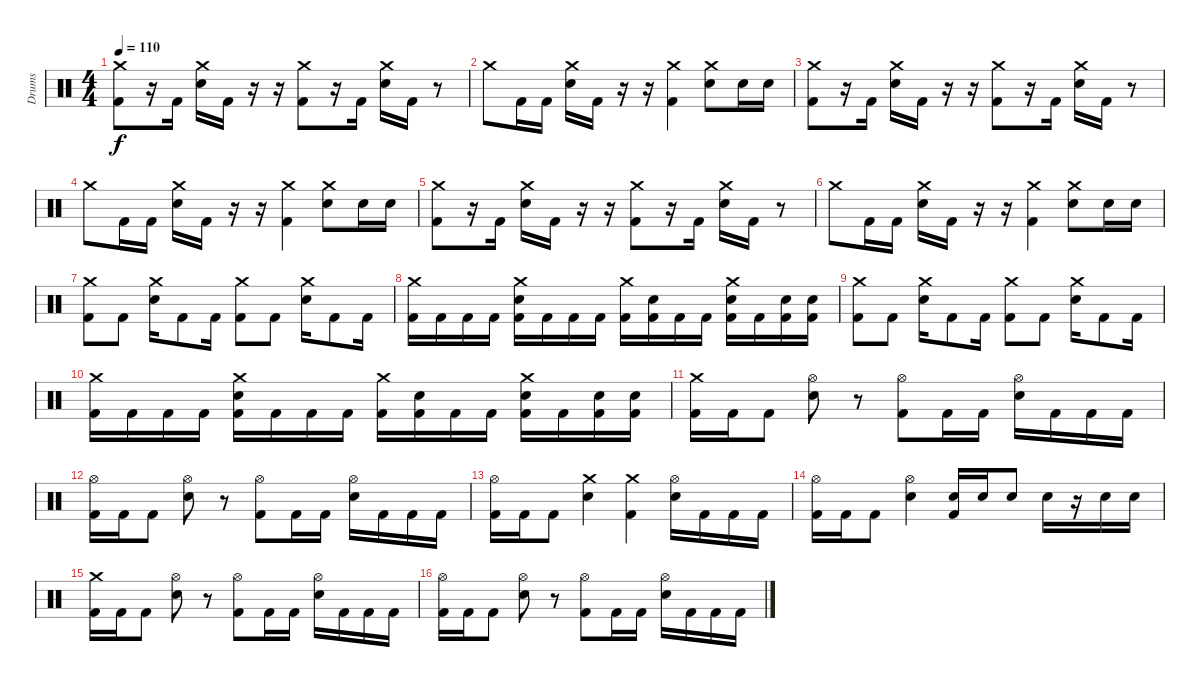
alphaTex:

\track ("Drums" "Drums") {instrument percussion}
\staff {score}
\articulation defaults
\ts (4 4)
\tempo 110
\clef neutral
\ks c
("Crash medium (hit)" "Kick (hit) 2").8{dy f} r.16 "Kick (hit) 2".16 ("Crash medium (hit)" "Electric Snare (hit)").16 "Kick (hit) 2".16 r.16 r.16 ("Crash medium (hit)" "Kick (hit) 2").8 r.16 "Kick (hit) 2".16 ("Crash medium (hit)" "Electric Snare (hit)").16 "Kick (hit) 2".16 r.8 |
"Crash medium (hit)".8 "Kick (hit) 2".16 "Kick (hit) 2".16 ("Crash medium (hit)" "Electric Snare (hit)").16 "Kick (hit) 2".16 r.16 r.16 ("Crash medium (hit)" "Kick (hit) 2").4 ("Crash medium (hit)" "Electric Snare (hit)").8 "Electric Snare (hit)".16 "Electric Snare (hit)".16 |
("Crash medium (hit)" "Kick (hit) 2").8 r.16 "Kick (hit) 2".16 ("Crash medium (hit)" "Electric Snare (hit)").16 "Kick (hit) 2".16 r.16 r.16 ("Crash medium (hit)" "Kick (hit) 2").8 r.16 "Kick (hit) 2".16 ("Crash medium (hit)" "Electric Snare (hit)").16 "Kick (hit) 2".16 r.8 |
"Crash medium (hit)".8 "Kick (hit) 2".16 "Kick (hit) 2".16 ("Crash medium (hit)" "Electric Snare (hit)").16 "Kick (hit) 2".16 r.16 r.16 ("Crash medium (hit)" "Kick (hit) 2").4 ("Crash medium (hit)" "Electric Snare (hit)").8 "Electric Snare (hit)".16 "Electric Snare (hit)".16 |
("Crash medium (hit)" "Kick (hit) 2").8 r.16 "Kick (hit) 2".16 ("Crash medium (hit)" "Electric Snare (hit)").16 "Kick (hit) 2".16 r.16 r.16 ("Crash medium (hit)" "Kick (hit) 2").8 r.16 "Kick (hit) 2".16 ("Crash medium (hit)" "Electric Snare (hit)").16 "Kick (hit) 2".16 r.8 |
"Crash medium (hit)".8 "Kick (hit) 2".16 "Kick (hit) 2".16 ("Crash medium (hit)" "Electric Snare (hit)").16 "Kick (hit) 2".16 r.16 r.16 ("Crash medium (hit)" "Kick (hit) 2").4 ("Crash medium (hit)" "Electric Snare (hit)").8 "Electric Snare (hit)".16 "Electric Snare (hit)".16 |
("Crash medium (hit)" "Kick (hit) 2").8 "Kick (hit) 2".8 ("Crash medium (hit)" "Electric Snare (hit)").16 "Kick (hit) 2".8 "Kick (hit) 2".16 ("Crash medium (hit)" "Kick (hit) 2").8 "Kick (hit) 2".8 ("Crash medium (hit)" "Electric Snare (hit)").16 "Kick (hit) 2".8 "Kick (hit) 2".16 |
("Crash medium (hit)" "Kick (hit) 2").16 "Kick (hit) 2".16 "Kick (hit) 2".16 "Kick (hit) 2".16 ("Crash medium (hit)" "Electric Snare (hit)" "Kick (hit) 2").16 "Kick (hit) 2".16 "Kick (hit) 2".16 "Kick (hit) 2".16 ("Crash medium (hit)" "Kick (hit) 2").16 ("Electric Snare (hit)" "Kick (hit) 2").16 "Kick (hit) 2".16 "Kick (hit) 2".16 ("Crash medium (hit)" "Electric Snare (hit)" "Kick (hit) 2").16 "Kick (hit) 2".16 ("Electric Snare (hit)" "Kick (hit) 2").16 ("Electric Snare (hit)" "Kick (hit) 2").16 |
("Crash medium (hit)" "Kick (hit) 2").8 "Kick (hit) 2".8 ("Crash medium (hit)" "Electric Snare (hit)").16 "Kick (hit) 2".8 "Kick (hit) 2".16 ("Crash medium (hit)" "Kick (hit) 2").8 "Kick (hit) 2".8 ("Crash medium (hit)" "Electric Snare (hit)").16 "Kick (hit) 2".8 "Kick (hit) 2".16 |
("Crash medium (hit)" "Kick (hit) 2").16 "Kick (hit) 2".16 "Kick (hit) 2".16 "Kick (hit) 2".16 ("Crash medium (hit)" "Electric Snare (hit)" "Kick (hit) 2").16 "Kick (hit) 2".16 "Kick (hit) 2".16 "Kick (hit) 2".16 ("Crash medium (hit)" "Kick (hit) 2").16 ("Electric Snare (hit)" "Kick (hit) 2").16 "Kick (hit) 2".16 "Kick (hit) 2".16 ("Crash medium (hit)" "Electric Snare (hit)" "Kick (hit) 2").16 "Kick (hit) 2".16 ("Electric Snare (hit)" "Kick (hit) 2").16 ("Electric Snare (hit)" "Kick (hit) 2").16 |
("Crash medium (hit)" "Kick (hit) 2").16 "Kick (hit) 2".16 "Kick (hit) 2".8 ("Hi-Hat (open)" "Electric Snare (hit)").8 r.8 ("Hi-Hat (open)" "Kick (hit) 2").8 "Kick (hit) 2".16 "Kick (hit) 2".16 ("Hi-Hat (open)" "Electric Snare (hit)").16 "Kick (hit) 2".16 "Kick (hit) 2".16 "Kick (hit) 2".16 |
("Hi-Hat (open)" "Kick (hit) 2").16 "Kick (hit) 2".16 "Kick (hit) 2".8 ("Hi-Hat (open)" "Electric Snare (hit)").8 r.8 ("Hi-Hat (open)" "Kick (hit) 2").8 "Kick (hit) 2".16 "Kick (hit) 2".16 ("Hi-Hat (open)" "Electric Snare (hit)").16 "Kick (hit) 2".16 "Kick (hit) 2".16 "Kick (hit) 2".16 |
("Hi-Hat (open)" "Kick (hit) 2").16 "Kick (hit) 2".16 "Kick (hit) 2".8 ("Crash medium (hit)" "Electric Snare (hit)").4 ("Crash medium (hit)" "Kick (hit) 2").4 ("Hi-Hat (open)" "Electric Snare (hit)").16 "Kick (hit) 2".16 "Kick (hit) 2".16 "Kick (hit) 2".16 |
("Hi-Hat (open)" "Kick (hit) 2").16 "Kick (hit) 2".16 "Kick (hit) 2".8 ("Hi-Hat (open)" "Electric Snare (hit)").4 ("Electric Snare (hit)" "Kick (hit) 2").16 "Electric Snare (hit)".16 "Electric Snare (hit)".8 "Electric Snare (hit)".16 r.16 "Electric Snare (hit)".16 "Electric Snare (hit)".16 |
("Crash medium (hit)" "Kick (hit) 2").16 "Kick (hit) 2".16 "Kick (hit) 2".8 ("Hi-Hat (open)" "Electric Snare (hit)").8 r.8 ("Hi-Hat (open)" "Kick (hit) 2").8 "Kick (hit) 2".16 "Kick (hit) 2".16 ("Hi-Hat (open)" "Electric Snare (hit)").16 "Kick (hit) 2".16 "Kick (hit) 2".16 "Kick (hit) 2".16 |
("Hi-Hat (open)" "Kick (hit) 2").16 "Kick (hit) 2".16 "Kick (hit) 2".8 ("Hi-Hat (open)" "Electric Snare (hit)").8 r.8 ("Hi-Hat (open)" "Kick (hit) 2").8 "Kick (hit) 2".16 "Kick (hit) 2".16 ("Hi-Hat (open)" "Electric Snare (hit)").16 "Kick (hit) 2".16 "Kick (hit) 2".16 "Kick (hit) 2".16
